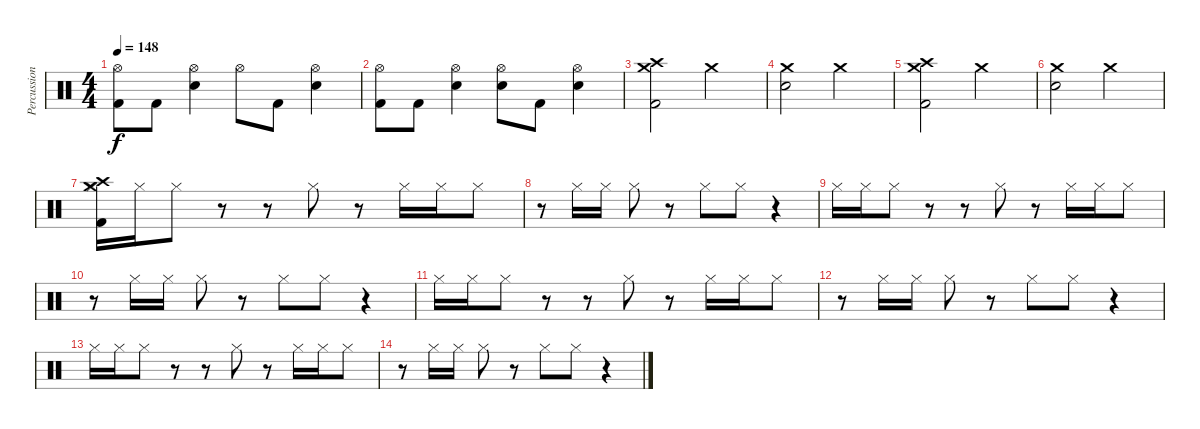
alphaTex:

\track ("Percussion" "Percussion") {instrument percussion}
\staff {score}
\articulation defaults
\ts (4 4)
\tempo 148
\clef neutral
\ks c
("Hi-Hat (open)" "Kick (hit) 2").8{dy f} "Kick (hit) 2".8 ("Hi-Hat (open)" "Electric Snare (hit)").4 "Hi-Hat (open)".8 "Kick (hit) 2".8 ("Hi-Hat (open)" "Electric Snare (hit)").4 |
("Hi-Hat (open)" "Kick (hit) 2").8 "Kick (hit) 2".8 ("Hi-Hat (open)" "Electric Snare (hit)").4 ("Hi-Hat (open)" "Electric Snare (hit)").8 "Kick (hit) 2".8 ("Hi-Hat (open)" "Electric Snare (hit)").4 |
("Crash medium (hit)" "Crash high (hit)" "Kick (hit) 2").2 "Crash medium (hit)".2 |
("Crash medium (hit)" "Electric Snare (hit)").2 "Crash medium (hit)".2 |
("Crash medium (hit)" "Crash high (hit)" "Kick (hit) 2").2 "Crash medium (hit)".2 |
("Crash medium (hit)" "Electric Snare (hit)").2 "Crash medium (hit)".2 |
("Crash medium (hit)" "Crash high (hit)" "Hi-Hat (closed)" "Kick (hit) 2").16 "Hi-Hat (closed)".16 "Hi-Hat (closed)".8 r.8 r.8 "Hi-Hat (closed)".8 r.8 "Hi-Hat (closed)".16 "Hi-Hat (closed)".16 "Hi-Hat (closed)".8 |
r.8 "Hi-Hat (closed)".16 "Hi-Hat (closed)".16 "Hi-Hat (closed)".8 r.8 "Hi-Hat (closed)".8 "Hi-Hat (closed)".8 r.4 |
"Hi-Hat (closed)".16 "Hi-Hat (closed)".16 "Hi-Hat (closed)".8 r.8 r.8 "Hi-Hat (closed)".8 r.8 "Hi-Hat (closed)".16 "Hi-Hat (closed)".16 "Hi-Hat (closed)".8 |
r.8 "Hi-Hat (closed)".16 "Hi-Hat (closed)".16 "Hi-Hat (closed)".8 r.8 "Hi-Hat (closed)".8 "Hi-Hat (closed)".8 r.4 |
"Hi-Hat (closed)".16 "Hi-Hat (closed)".16 "Hi-Hat (closed)".8 r.8 r.8 "Hi-Hat (closed)".8 r.8 "Hi-Hat (closed)".16 "Hi-Hat (closed)".16 "Hi-Hat (closed)".8 |
r.8 "Hi-Hat (closed)".16 "Hi-Hat (closed)".16 "Hi-Hat (closed)".8 r.8 "Hi-Hat (closed)".8 "Hi-Hat (closed)".8 r.4 |
"Hi-Hat (closed)".16 "Hi-Hat (closed)".16 "Hi-Hat (closed)".8 r.8 r.8 "Hi-Hat (closed)".8 r.8 "Hi-Hat (closed)".16 "Hi-Hat (closed)".16 "Hi-Hat (closed)".8 |
r.8 "Hi-Hat (closed)".16 "Hi-Hat (closed)".16 "Hi-Hat (closed)".8 r.8 "Hi-Hat (closed)".8 "Hi-Hat (closed)".8 r.4
